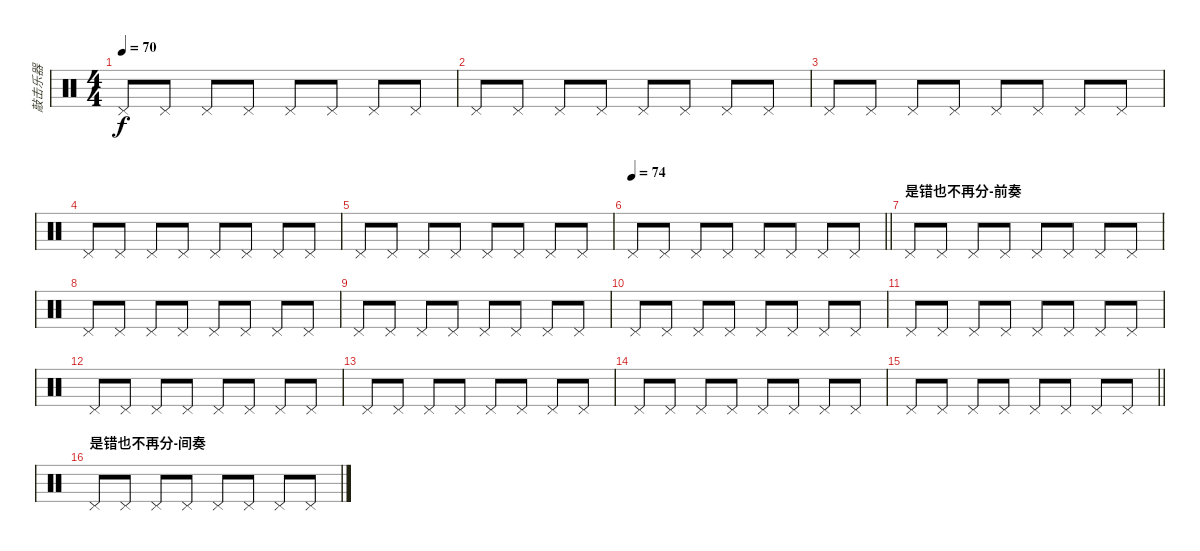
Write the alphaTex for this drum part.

\track ("敲击乐器" "敲击乐器") {instrument percussion}
\staff {score}
\articulation defaults
\ts (4 4)
\tempo 70
\clef neutral
\ks c "Pedal Hi-Hat (hit)".8{dy f} "Pedal Hi-Hat (hit)".8 "Pedal Hi-Hat (hit)".8 "Pedal Hi-Hat (hit)".8 "Pedal Hi-Hat (hit)".8 "Pedal Hi-Hat (hit)".8 "Pedal Hi-Hat (hit)".8 "Pedal Hi-Hat (hit)".8
|
"Pedal Hi-Hat (hit)".8 "Pedal Hi-Hat (hit)".8 "Pedal Hi-Hat (hit)".8 "Pedal Hi-Hat (hit)".8 "Pedal Hi-Hat (hit)".8 "Pedal Hi-Hat (hit)".8 "Pedal Hi-Hat (hit)".8 "Pedal Hi-Hat (hit)".8 |
"Pedal Hi-Hat (hit)".8 "Pedal Hi-Hat (hit)".8 "Pedal Hi-Hat (hit)".8 "Pedal Hi-Hat (hit)".8 "Pedal Hi-Hat (hit)".8 "Pedal Hi-Hat (hit)".8 "Pedal Hi-Hat (hit)".8 "Pedal Hi-Hat (hit)".8 |
"Pedal Hi-Hat (hit)".8 "Pedal Hi-Hat (hit)".8 "Pedal Hi-Hat (hit)".8 "Pedal Hi-Hat (hit)".8 "Pedal Hi-Hat (hit)".8 "Pedal Hi-Hat (hit)".8 "Pedal Hi-Hat (hit)".8 "Pedal Hi-Hat (hit)".8 |
"Pedal Hi-Hat (hit)".8 "Pedal Hi-Hat (hit)".8 "Pedal Hi-Hat (hit)".8 "Pedal Hi-Hat (hit)".8 "Pedal Hi-Hat (hit)".8 "Pedal Hi-Hat (hit)".8 "Pedal Hi-Hat (hit)".8 "Pedal Hi-Hat (hit)".8 |
\tempo 74
\barLineRight lightlight "Pedal Hi-Hat (hit)".8 "Pedal Hi-Hat (hit)".8 "Pedal Hi-Hat (hit)".8 "Pedal Hi-Hat (hit)".8 "Pedal Hi-Hat (hit)".8 "Pedal Hi-Hat (hit)".8 "Pedal Hi-Hat (hit)".8 "Pedal Hi-Hat (hit)".8
|
\section ("" "是错也不再分-前奏")
"Pedal Hi-Hat (hit)".8 "Pedal Hi-Hat (hit)".8 "Pedal Hi-Hat (hit)".8 "Pedal Hi-Hat (hit)".8 "Pedal Hi-Hat (hit)".8 "Pedal Hi-Hat (hit)".8 "Pedal Hi-Hat (hit)".8 "Pedal Hi-Hat (hit)".8 |
"Pedal Hi-Hat (hit)".8 "Pedal Hi-Hat (hit)".8 "Pedal Hi-Hat (hit)".8 "Pedal Hi-Hat (hit)".8 "Pedal Hi-Hat (hit)".8 "Pedal Hi-Hat (hit)".8 "Pedal Hi-Hat (hit)".8 "Pedal Hi-Hat (hit)".8 |
"Pedal Hi-Hat (hit)".8 "Pedal Hi-Hat (hit)".8 "Pedal Hi-Hat (hit)".8 "Pedal Hi-Hat (hit)".8 "Pedal Hi-Hat (hit)".8 "Pedal Hi-Hat (hit)".8 "Pedal Hi-Hat (hit)".8 "Pedal Hi-Hat (hit)".8 |
"Pedal Hi-Hat (hit)".8 "Pedal Hi-Hat (hit)".8 "Pedal Hi-Hat (hit)".8 "Pedal Hi-Hat (hit)".8 "Pedal Hi-Hat (hit)".8 "Pedal Hi-Hat (hit)".8 "Pedal Hi-Hat (hit)".8 "Pedal Hi-Hat (hit)".8 |
"Pedal Hi-Hat (hit)".8 "Pedal Hi-Hat (hit)".8 "Pedal Hi-Hat (hit)".8 "Pedal Hi-Hat (hit)".8 "Pedal Hi-Hat (hit)".8 "Pedal Hi-Hat (hit)".8 "Pedal Hi-Hat (hit)".8 "Pedal Hi-Hat (hit)".8 |
"Pedal Hi-Hat (hit)".8 "Pedal Hi-Hat (hit)".8 "Pedal Hi-Hat (hit)".8 "Pedal Hi-Hat (hit)".8 "Pedal Hi-Hat (hit)".8 "Pedal Hi-Hat (hit)".8 "Pedal Hi-Hat (hit)".8 "Pedal Hi-Hat (hit)".8 |
"Pedal Hi-Hat (hit)".8 "Pedal Hi-Hat (hit)".8 "Pedal Hi-Hat (hit)".8 "Pedal Hi-Hat (hit)".8 "Pedal Hi-Hat (hit)".8 "Pedal Hi-Hat (hit)".8 "Pedal Hi-Hat (hit)".8 "Pedal Hi-Hat (hit)".8 |
"Pedal Hi-Hat (hit)".8 "Pedal Hi-Hat (hit)".8 "Pedal Hi-Hat (hit)".8 "Pedal Hi-Hat (hit)".8 "Pedal Hi-Hat (hit)".8 "Pedal Hi-Hat (hit)".8 "Pedal Hi-Hat (hit)".8 "Pedal Hi-Hat (hit)".8 |
\barLineRight lightlight "Pedal Hi-Hat (hit)".8 "Pedal Hi-Hat (hit)".8 "Pedal Hi-Hat (hit)".8 "Pedal Hi-Hat (hit)".8 "Pedal Hi-Hat (hit)".8 "Pedal Hi-Hat (hit)".8 "Pedal Hi-Hat (hit)".8 "Pedal Hi-Hat (hit)".8
|
\section ("" "是错也不再分-间奏")
"Pedal Hi-Hat (hit)".8 "Pedal Hi-Hat (hit)".8 "Pedal Hi-Hat (hit)".8 "Pedal Hi-Hat (hit)".8 "Pedal Hi-Hat (hit)".8 "Pedal Hi-Hat (hit)".8 "Pedal Hi-Hat (hit)".8 "Pedal Hi-Hat (hit)".8
